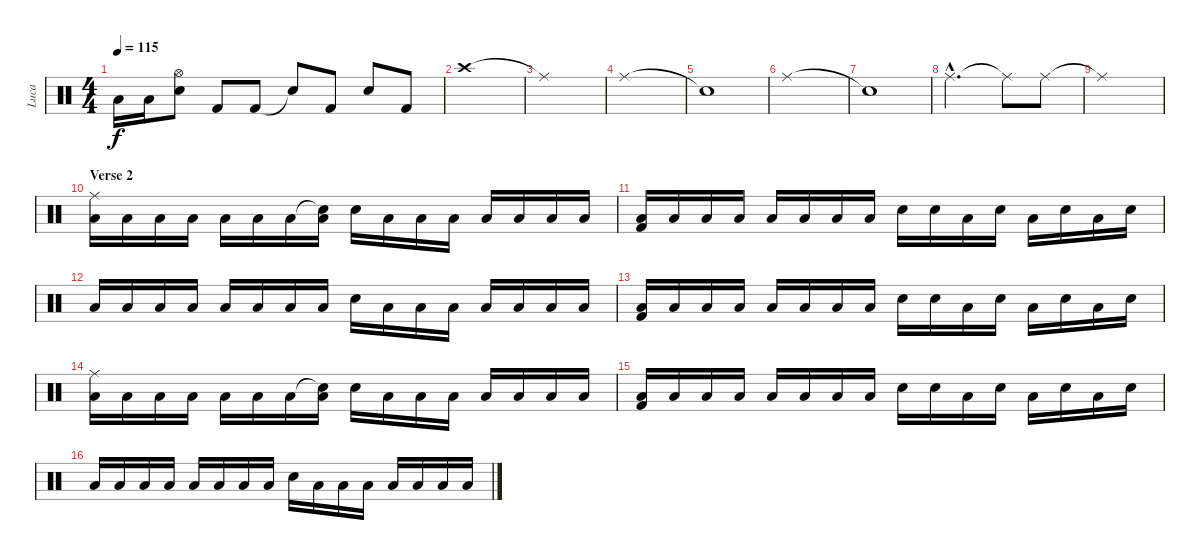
\track ("Luca" "Luca") {instrument percussion}
\staff {score}
\articulation defaults
\ts (4 4)
\tempo 115
\clef neutral
\ks c "Low Floor Tom (hit)".16{dy f} "Low Floor Tom (hit)".16
("Hi-Hat (open)" "Snare (hit) 2").8 "Kick (hit) 2".8 "Kick (hit) 2".8 "Snare (hit)"{t}.8 "Kick (hit) 2".8 "Snare (hit) 2".8 "Kick (hit) 2".8 |
"Crash high (hit)".1 |
"Ride (middle)"{t}.1 |
"Ride (middle)".1 |
"Snare (hit)"{t}.1 |
"Ride (middle)".1 |
"Snare (hit)"{t}.1 |
"Ride (middle)"{hac}.2{d} "Ride (middle)"{t}.8 "Ride (middle)".8 |
"Ride (middle)"{t}.1 |
\section ("" "Verse 2")
("Ride (middle)" "Low Floor Tom (hit)").16 "Low Floor Tom (hit)".16 "Low Floor Tom (hit)".16 "Low Floor Tom (hit)".16 "Low Floor Tom (hit)".16 "Low Floor Tom (hit)".16 "Low Floor Tom (hit)".16 ("Snare (hit)"{t} "Low Floor Tom (hit)").16 "Snare (hit) 2".16 "Low Floor Tom (hit)".16 "Low Floor Tom (hit)".16 "Low Floor Tom (hit)".16 "Low Floor Tom (hit)".16 "Low Floor Tom (hit)".16 "Low Floor Tom (hit)".16 "Low Floor Tom (hit)".16 |
("Low Floor Tom (hit)" "Kick (hit) 2").16 "Low Floor Tom (hit)".16 "Low Floor Tom (hit)".16 "Low Floor Tom (hit)".16 "Low Floor Tom (hit)".16 "Low Floor Tom (hit)".16 "Low Floor Tom (hit)".16 "Low Floor Tom (hit)".16 "Snare (hit) 2".16 "Snare (hit) 2".16 "Low Floor Tom (hit)".16 "Snare (hit) 2".16 "Low Floor Tom (hit)".16 "Snare (hit) 2".16 "Low Floor Tom (hit)".16 "Snare (hit) 2".16 |
"Low Floor Tom (hit)".16 "Low Floor Tom (hit)".16 "Low Floor Tom (hit)".16 "Low Floor Tom (hit)".16 "Low Floor Tom (hit)".16 "Low Floor Tom (hit)".16 "Low Floor Tom (hit)".16 "Low Floor Tom (hit)".16 "Snare (hit) 2".16 "Low Floor Tom (hit)".16 "Low Floor Tom (hit)".16 "Low Floor Tom (hit)".16 "Low Floor Tom (hit)".16 "Low Floor Tom (hit)".16 "Low Floor Tom (hit)".16 "Low Floor Tom (hit)".16 |
("Low Floor Tom (hit)" "Kick (hit) 2").16 "Low Floor Tom (hit)".16 "Low Floor Tom (hit)".16 "Low Floor Tom (hit)".16 "Low Floor Tom (hit)".16 "Low Floor Tom (hit)".16 "Low Floor Tom (hit)".16 "Low Floor Tom (hit)".16 "Snare (hit) 2".16 "Snare (hit) 2".16 "Low Floor Tom (hit)".16 "Snare (hit) 2".16 "Low Floor Tom (hit)".16 "Snare (hit) 2".16 "Low Floor Tom (hit)".16 "Snare (hit) 2".16 |
("Ride (middle)" "Low Floor Tom (hit)").16 "Low Floor Tom (hit)".16 "Low Floor Tom (hit)".16 "Low Floor Tom (hit)".16 "Low Floor Tom (hit)".16 "Low Floor Tom (hit)".16 "Low Floor Tom (hit)".16 ("Snare (hit)"{t} "Low Floor Tom (hit)").16 "Snare (hit) 2".16 "Low Floor Tom (hit)".16 "Low Floor Tom (hit)".16 "Low Floor Tom (hit)".16 "Low Floor Tom (hit)".16 "Low Floor Tom (hit)".16 "Low Floor Tom (hit)".16 "Low Floor Tom (hit)".16 |
("Low Floor Tom (hit)" "Kick (hit) 2").16 "Low Floor Tom (hit)".16 "Low Floor Tom (hit)".16 "Low Floor Tom (hit)".16 "Low Floor Tom (hit)".16 "Low Floor Tom (hit)".16 "Low Floor Tom (hit)".16 "Low Floor Tom (hit)".16 "Snare (hit) 2".16 "Snare (hit) 2".16 "Low Floor Tom (hit)".16 "Snare (hit) 2".16 "Low Floor Tom (hit)".16 "Snare (hit) 2".16 "Low Floor Tom (hit)".16 "Snare (hit) 2".16 |
"Low Floor Tom (hit)".16 "Low Floor Tom (hit)".16 "Low Floor Tom (hit)".16 "Low Floor Tom (hit)".16 "Low Floor Tom (hit)".16 "Low Floor Tom (hit)".16 "Low Floor Tom (hit)".16 "Low Floor Tom (hit)".16 "Snare (hit) 2".16 "Low Floor Tom (hit)".16 "Low Floor Tom (hit)".16 "Low Floor Tom (hit)".16 "Low Floor Tom (hit)".16 "Low Floor Tom (hit)".16 "Low Floor Tom (hit)".16 "Low Floor Tom (hit)".16
